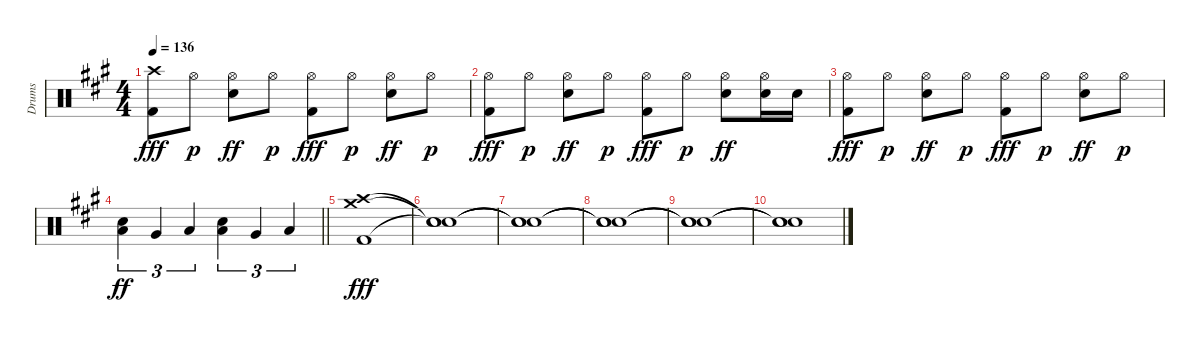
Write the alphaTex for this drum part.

\track ("Drums" "Drums") {instrument percussion}
\staff {score}
\articulation defaults
\ts (4 4)
\tempo 136
\clef neutral
\ks f#minor
("Crash high (hit)" "Kick (hit) 2").8{dy fff} "Hi-Hat (open)".8{dy p} ("Hi-Hat (open)" "Electric Snare (hit)").8{dy ff} "Hi-Hat (open)".8{dy p} ("Hi-Hat (open)" "Kick (hit) 2").8{dy fff} "Hi-Hat (open)".8{dy p} ("Hi-Hat (open)" "Electric Snare (hit)").8{dy ff} "Hi-Hat (open)".8{dy p} |
("Hi-Hat (open)" "Kick (hit) 2").8{dy fff} "Hi-Hat (open)".8{dy p} ("Hi-Hat (open)" "Electric Snare (hit)").8{dy ff} "Hi-Hat (open)".8{dy p} ("Hi-Hat (open)" "Kick (hit) 2").8{dy fff} "Hi-Hat (open)".8{dy p} ("Hi-Hat (open)" "Electric Snare (hit)").8{dy ff} ("Hi-Hat (open)" "Electric Snare (hit)").16 "Electric Snare (hit)".16 |
("Hi-Hat (open)" "Kick (hit) 2").8{dy fff} "Hi-Hat (open)".8{dy p} ("Hi-Hat (open)" "Electric Snare (hit)").8{dy ff} "Hi-Hat (open)".8{dy p} ("Hi-Hat (open)" "Kick (hit) 2").8{dy fff} "Hi-Hat (open)".8{dy p} ("Hi-Hat (open)" "Electric Snare (hit)").8{dy ff} "Hi-Hat (open)".8{dy p} |
\barLineRight lightlight
("Electric Snare (hit)" "Low Tom (hit)").4{tu (3 2) dy ff} "Very Low Tom (hit)".4{tu (3 2)} "Low Floor Tom (hit)".4{tu (3 2)} ("Electric Snare (hit)" "Low Tom (hit)").4{tu (3 2)} "Very Low Tom (hit)".4{tu (3 2)} "Low Floor Tom (hit)".4{tu (3 2)} |
("Crash high (hit)" "Crash medium (hit)" "Kick (hit) 2").1{dy fff} |
("Snare (hit)"{t} "Snare (hit)"{t} "Snare (hit)"{t}).1 |
("Snare (hit)"{t} "Snare (hit)"{t} "Snare (hit)"{t}).1 |
("Snare (hit)"{t} "Snare (hit)"{t} "Snare (hit)"{t}).1 |
("Snare (hit)"{t} "Snare (hit)"{t} "Snare (hit)"{t}).1 |
("Snare (hit)"{t} "Snare (hit)"{t} "Snare (hit)"{t}).1
